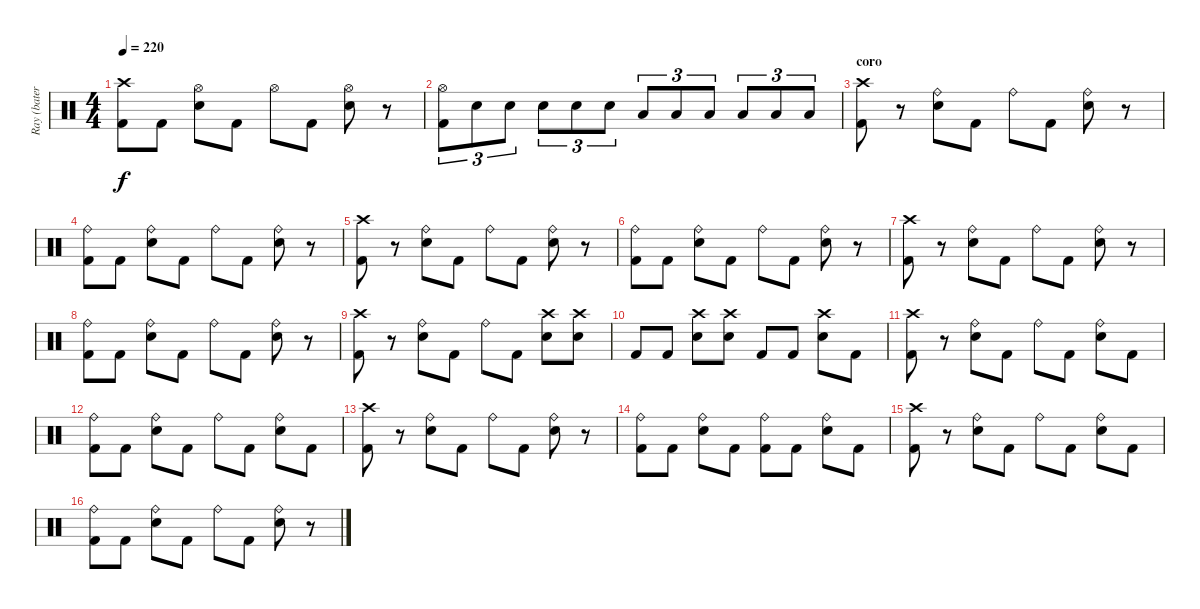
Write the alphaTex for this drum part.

\track ("Ray (batería)" "Ray (bater") {instrument percussion}
\staff {score}
\articulation defaults
\ts (4 4)
\tempo 220
\clef neutral
\ks c
("Crash high (hit)" "Kick (hit) 2").8{dy f} "Kick (hit) 2".8 ("Hi-Hat (open)" "Snare (hit) 2").8 "Kick (hit) 2".8 "Hi-Hat (open)".8 "Kick (hit) 2".8 ("Hi-Hat (open)" "Snare (hit) 2").8 r.8 |
("Hi-Hat (open)" "Kick (hit) 2").8{tu (3 2)} "Snare (hit) 2".8{tu (3 2)} "Snare (hit) 2".8{tu (3 2)} "Snare (hit) 2".8{tu (3 2)} "Snare (hit) 2".8{tu (3 2)} "Snare (hit) 2".8{tu (3 2)} "Low Tom (hit)".8{tu (3 2)} "Low Tom (hit)".8{tu (3 2)} "Low Tom (hit)".8{tu (3 2)} "Low Floor Tom (hit)".8{tu (3 2)} "Low Floor Tom (hit)".8{tu (3 2)} "Low Floor Tom (hit)".8{tu (3 2)} |
\section ("" "coro")
("Crash high (hit)" "Kick (hit) 2").8 r.8 ("Ride (bell)" "Snare (hit) 2").8 "Kick (hit) 2".8 "Ride (bell)".8 "Kick (hit) 2".8 ("Ride (bell)" "Snare (hit) 2").8 r.8 |
("Ride (bell)" "Kick (hit) 2").8 "Kick (hit) 2".8 ("Ride (bell)" "Snare (hit) 2").8 "Kick (hit) 2".8 "Ride (bell)".8 "Kick (hit) 2".8 ("Ride (bell)" "Snare (hit) 2").8 r.8 |
("Crash high (hit)" "Kick (hit) 2").8 r.8 ("Ride (bell)" "Snare (hit) 2").8 "Kick (hit) 2".8 "Ride (bell)".8 "Kick (hit) 2".8 ("Ride (bell)" "Snare (hit) 2").8 r.8 |
("Ride (bell)" "Kick (hit) 2").8 "Kick (hit) 2".8 ("Ride (bell)" "Snare (hit) 2").8 "Kick (hit) 2".8 "Ride (bell)".8 "Kick (hit) 2".8 ("Ride (bell)" "Snare (hit) 2").8 r.8 |
("Crash high (hit)" "Kick (hit) 2").8 r.8 ("Ride (bell)" "Snare (hit) 2").8 "Kick (hit) 2".8 "Ride (bell)".8 "Kick (hit) 2".8 ("Ride (bell)" "Snare (hit) 2").8 r.8 |
("Ride (bell)" "Kick (hit) 2").8 "Kick (hit) 2".8 ("Ride (bell)" "Snare (hit) 2").8 "Kick (hit) 2".8 "Ride (bell)".8 "Kick (hit) 2".8 ("Ride (bell)" "Snare (hit) 2").8 r.8 |
("Crash high (hit)" "Kick (hit) 2").8 r.8 ("Ride (bell)" "Snare (hit) 2").8 "Kick (hit) 2".8 "Ride (bell)".8 "Kick (hit) 2".8 ("Crash high (hit)" "Snare (hit) 2").8 ("Crash high (hit)" "Snare (hit) 2").8 |
"Kick (hit) 2".8 "Kick (hit) 2".8 ("Crash high (hit)" "Snare (hit) 2").8 ("Crash high (hit)" "Snare (hit) 2").8 "Kick (hit) 2".8 "Kick (hit) 2".8 ("Crash high (hit)" "Snare (hit) 2").8 "Kick (hit) 2".8 |
("Crash high (hit)" "Kick (hit) 2").8 r.8 ("Ride (bell)" "Snare (hit) 2").8 "Kick (hit) 2".8 "Ride (bell)".8 "Kick (hit) 2".8 ("Ride (bell)" "Snare (hit) 2").8 "Kick (hit) 2".8 |
("Ride (bell)" "Kick (hit) 2").8 "Kick (hit) 2".8 ("Ride (bell)" "Snare (hit) 2").8 "Kick (hit) 2".8 "Ride (bell)".8 "Kick (hit) 2".8 ("Ride (bell)" "Snare (hit) 2").8 "Kick (hit) 2".8 |
("Crash high (hit)" "Kick (hit) 2").8 r.8 ("Ride (bell)" "Snare (hit) 2").8 "Kick (hit) 2".8 "Ride (bell)".8 "Kick (hit) 2".8 ("Ride (bell)" "Snare (hit) 2").8 r.8 |
("Ride (bell)" "Kick (hit) 2").8 "Kick (hit) 2".8 ("Ride (bell)" "Snare (hit) 2").8 "Kick (hit) 2".8 ("Ride (bell)" "Kick (hit) 2").8 "Kick (hit) 2".8 ("Ride (bell)" "Snare (hit) 2").8 "Kick (hit) 2".8 |
("Crash high (hit)" "Kick (hit) 2").8 r.8 ("Ride (bell)" "Snare (hit) 2").8 "Kick (hit) 2".8 "Ride (bell)".8 "Kick (hit) 2".8 ("Ride (bell)" "Snare (hit) 2").8 "Kick (hit) 2".8 |
("Ride (bell)" "Kick (hit) 2").8 "Kick (hit) 2".8 ("Ride (bell)" "Snare (hit) 2").8 "Kick (hit) 2".8 "Ride (bell)".8 "Kick (hit) 2".8 ("Ride (bell)" "Snare (hit) 2").8 r.8
